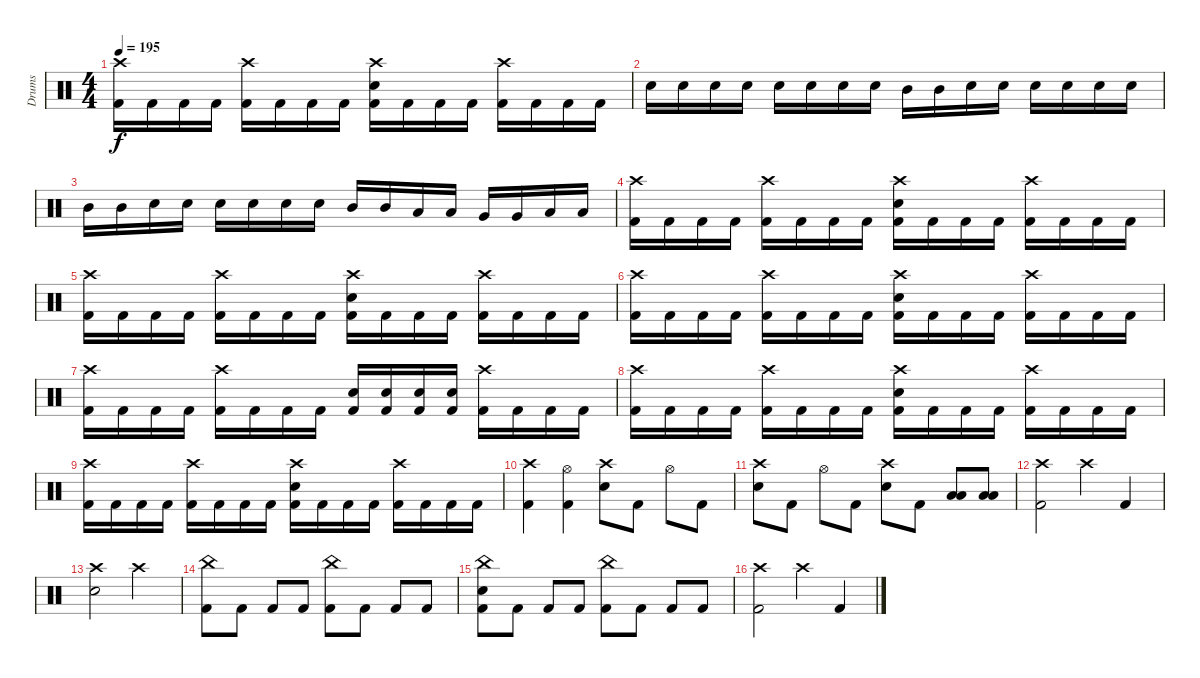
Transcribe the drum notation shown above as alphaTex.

\track ("Drums" "Drums") {instrument percussion}
\staff {score}
\articulation defaults
\ts (4 4)
\tempo 195
\clef neutral
\ks c
("Crash high (hit)" "Kick (hit) 2").16{dy f} "Kick (hit) 2".16 "Kick (hit) 2".16 "Kick (hit) 2".16 ("Crash high (hit)" "Kick (hit) 2").16 "Kick (hit) 2".16 "Kick (hit) 2".16 "Kick (hit) 2".16 ("Crash high (hit)" "Snare (hit) 2" "Kick (hit) 2").16 "Kick (hit) 2".16 "Kick (hit) 2".16 "Kick (hit) 2".16 ("Crash high (hit)" "Kick (hit) 2").16 "Kick (hit) 2".16 "Kick (hit) 2".16 "Kick (hit) 2".16 |
"Snare (hit) 2".16 "Snare (hit) 2".16 "Snare (hit) 2".16 "Snare (hit) 2".16 "Snare (hit) 2".16 "Snare (hit) 2".16 "Snare (hit) 2".16 "Snare (hit) 2".16 "Mid Tom (hit)".16 "Mid Tom (hit)".16 "Snare (hit) 2".16 "Snare (hit) 2".16 "Snare (hit) 2".16 "Snare (hit) 2".16 "Snare (hit) 2".16 "Snare (hit) 2".16 |
"Mid Tom (hit)".16 "Mid Tom (hit)".16 "Snare (hit) 2".16 "Snare (hit) 2".16 "Snare (hit) 2".16 "Snare (hit) 2".16 "Snare (hit) 2".16 "Snare (hit) 2".16 "Mid Tom (hit)".16 "Mid Tom (hit)".16 "Low Tom (hit)".16 "Low Tom (hit)".16 "Very Low Tom (hit)".16 "Very Low Tom (hit)".16 "Low Floor Tom (hit)".16 "Low Floor Tom (hit)".16 |
("Crash high (hit)" "Kick (hit) 2").16 "Kick (hit) 2".16 "Kick (hit) 2".16 "Kick (hit) 2".16 ("Crash high (hit)" "Kick (hit) 2").16 "Kick (hit) 2".16 "Kick (hit) 2".16 "Kick (hit) 2".16 ("Crash high (hit)" "Snare (hit) 2" "Kick (hit) 2").16 "Kick (hit) 2".16 "Kick (hit) 2".16 "Kick (hit) 2".16 ("Crash high (hit)" "Kick (hit) 2").16 "Kick (hit) 2".16 "Kick (hit) 2".16 "Kick (hit) 2".16 |
("Crash high (hit)" "Kick (hit) 2").16 "Kick (hit) 2".16 "Kick (hit) 2".16 "Kick (hit) 2".16 ("Crash high (hit)" "Kick (hit) 2").16 "Kick (hit) 2".16 "Kick (hit) 2".16 "Kick (hit) 2".16 ("Crash high (hit)" "Snare (hit) 2" "Kick (hit) 2").16 "Kick (hit) 2".16 "Kick (hit) 2".16 "Kick (hit) 2".16 ("Crash high (hit)" "Kick (hit) 2").16 "Kick (hit) 2".16 "Kick (hit) 2".16 "Kick (hit) 2".16 |
("Crash high (hit)" "Kick (hit) 2").16 "Kick (hit) 2".16 "Kick (hit) 2".16 "Kick (hit) 2".16 ("Crash high (hit)" "Kick (hit) 2").16 "Kick (hit) 2".16 "Kick (hit) 2".16 "Kick (hit) 2".16 ("Crash high (hit)" "Snare (hit) 2" "Kick (hit) 2").16 "Kick (hit) 2".16 "Kick (hit) 2".16 "Kick (hit) 2".16 ("Crash high (hit)" "Kick (hit) 2").16 "Kick (hit) 2".16 "Kick (hit) 2".16 "Kick (hit) 2".16 |
("Crash high (hit)" "Kick (hit) 2").16 "Kick (hit) 2".16 "Kick (hit) 2".16 "Kick (hit) 2".16 ("Crash high (hit)" "Kick (hit) 2").16 "Kick (hit) 2".16 "Kick (hit) 2".16 "Kick (hit) 2".16 ("Snare (hit) 2" "Kick (hit) 2").16 ("Snare (hit) 2" "Kick (hit) 2").16 ("Snare (hit) 2" "Kick (hit) 2").16 ("Snare (hit) 2" "Kick (hit) 2").16 ("Crash high (hit)" "Kick (hit) 2").16 "Kick (hit) 2".16 "Kick (hit) 2".16 "Kick (hit) 2".16 |
("Crash high (hit)" "Kick (hit) 2").16 "Kick (hit) 2".16 "Kick (hit) 2".16 "Kick (hit) 2".16 ("Crash high (hit)" "Kick (hit) 2").16 "Kick (hit) 2".16 "Kick (hit) 2".16 "Kick (hit) 2".16 ("Crash high (hit)" "Snare (hit) 2" "Kick (hit) 2").16 "Kick (hit) 2".16 "Kick (hit) 2".16 "Kick (hit) 2".16 ("Crash high (hit)" "Kick (hit) 2").16 "Kick (hit) 2".16 "Kick (hit) 2".16 "Kick (hit) 2".16 |
("Crash high (hit)" "Kick (hit) 2").16 "Kick (hit) 2".16 "Kick (hit) 2".16 "Kick (hit) 2".16 ("Crash high (hit)" "Kick (hit) 2").16 "Kick (hit) 2".16 "Kick (hit) 2".16 "Kick (hit) 2".16 ("Crash high (hit)" "Snare (hit) 2" "Kick (hit) 2").16 "Kick (hit) 2".16 "Kick (hit) 2".16 "Kick (hit) 2".16 ("Crash high (hit)" "Kick (hit) 2").16 "Kick (hit) 2".16 "Kick (hit) 2".16 "Kick (hit) 2".16 |
("Crash high (hit)" "Kick (hit) 2").4 ("Hi-Hat (open)" "Kick (hit) 2").4 ("Crash high (hit)" "Snare (hit) 2").8 "Kick (hit) 2".8 "Hi-Hat (open)".8 "Kick (hit) 2".8 |
("Crash high (hit)" "Snare (hit) 2").8 "Kick (hit) 2".8 "Hi-Hat (open)".8 "Kick (hit) 2".8 ("Crash high (hit)" "Snare (hit) 2").8 "Kick (hit) 2".8 ("Low Floor Tom (hit)" "Low Tom (hit)").8 ("Low Floor Tom (hit)" "Low Tom (hit)").8 |
("Crash high (hit)" "Kick (hit) 2").2 "Crash high (hit)".4 "Kick (hit) 2".4 |
("Crash high (hit)" "Snare (hit) 2").2 "Crash high (hit)".2 |
("China (hit)" "Kick (hit) 2").8 "Kick (hit) 2".8 "Kick (hit) 2".8 "Kick (hit) 2".8 ("China (hit)" "Kick (hit) 2").8 "Kick (hit) 2".8 "Kick (hit) 2".8 "Kick (hit) 2".8 |
("China (hit)" "Snare (hit) 2" "Kick (hit) 2").8 "Kick (hit) 2".8 "Kick (hit) 2".8 "Kick (hit) 2".8 ("China (hit)" "Kick (hit) 2").8 "Kick (hit) 2".8 "Kick (hit) 2".8 "Kick (hit) 2".8 |
("Crash high (hit)" "Kick (hit) 2").2 "Crash high (hit)".4 "Kick (hit) 2".4
